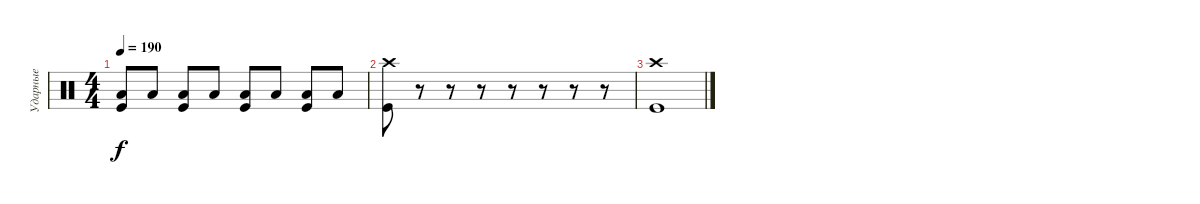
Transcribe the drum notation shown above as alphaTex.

\track ("Ударные" "Ударные") {instrument percussion}
\staff {score}
\articulation defaults
\ts (4 4)
\tempo 190
\clef neutral
\ks c
("Kick (hit)" "Low Tom (hit)").8{dy f} "Low Tom (hit)".8 ("Kick (hit)" "Low Tom (hit)").8 "Low Tom (hit)".8 ("Kick (hit)" "Low Tom (hit)").8 "Low Tom (hit)".8 ("Kick (hit)" "Low Tom (hit)").8 "Low Tom (hit)".8 |
("Kick (hit)" "Crash high (hit)").8 r.8 r.8 r.8 r.8 r.8 r.8 r.8 |
("Kick (hit)" "Crash high (hit)").1
